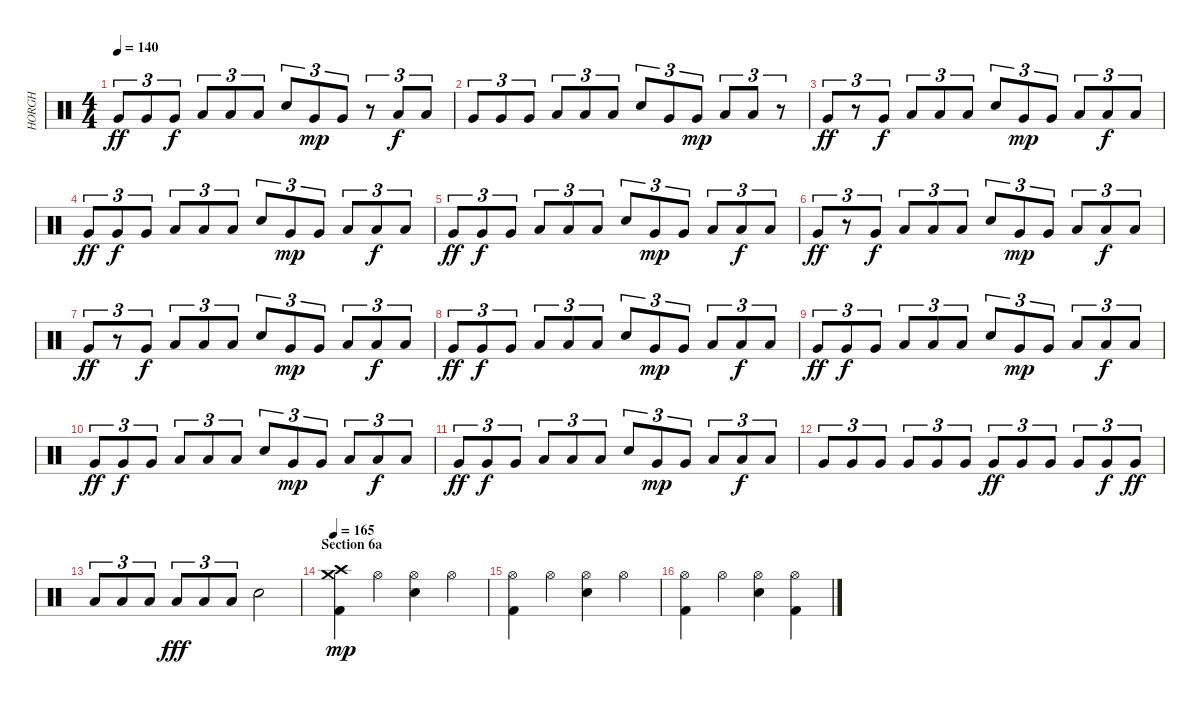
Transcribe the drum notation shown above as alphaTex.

\track ("HORGH" "HORGH") {instrument percussion}
\staff {score}
\articulation defaults
\ts (4 4)
\tempo 140
\clef neutral
\ks c "Very Low Tom (hit)".8{tu (3 2) dy ff} "Very Low Tom (hit)".8{tu (3 2)} "Very Low Tom (hit)".8{tu (3 2) dy f} "Low Floor Tom (hit)".8{tu (3 2)} "Low Floor Tom (hit)".8{tu (3 2)} "Low Floor Tom (hit)".8{tu (3 2)} "Electric Snare (hit)".8{tu (3 2)} "Very Low Tom (hit)".8{tu (3 2) dy mp} "Very Low Tom (hit)".8{tu (3 2)}
r.8{tu (3 2)} "Low Floor Tom (hit)".8{tu (3 2) dy f} "Low Floor Tom (hit)".8{tu (3 2)} |
"Very Low Tom (hit)".8{tu (3 2)} "Very Low Tom (hit)".8{tu (3 2)} "Very Low Tom (hit)".8{tu (3 2)} "Low Floor Tom (hit)".8{tu (3 2)} "Low Floor Tom (hit)".8{tu (3 2)} "Low Floor Tom (hit)".8{tu (3 2)} "Electric Snare (hit)".8{tu (3 2)} "Very Low Tom (hit)".8{tu (3 2)} "Very Low Tom (hit)".8{tu (3 2) dy mp} "Low Floor Tom (hit)".8{tu (3 2)} "Low Floor Tom (hit)".8{tu (3 2)} r.8{tu (3 2)} |
"Very Low Tom (hit)".8{tu (3 2) dy ff} r.8{tu (3 2)} "Very Low Tom (hit)".8{tu (3 2) dy f} "Low Floor Tom (hit)".8{tu (3 2)} "Low Floor Tom (hit)".8{tu (3 2)} "Low Floor Tom (hit)".8{tu (3 2)} "Electric Snare (hit)".8{tu (3 2)} "Very Low Tom (hit)".8{tu (3 2) dy mp} "Very Low Tom (hit)".8{tu (3 2)} "Low Floor Tom (hit)".8{tu (3 2)} "Low Floor Tom (hit)".8{tu (3 2) dy f} "Low Floor Tom (hit)".8{tu (3 2)} |
"Very Low Tom (hit)".8{tu (3 2) dy ff} "Very Low Tom (hit)".8{tu (3 2) dy f} "Very Low Tom (hit)".8{tu (3 2)} "Low Floor Tom (hit)".8{tu (3 2)} "Low Floor Tom (hit)".8{tu (3 2)} "Low Floor Tom (hit)".8{tu (3 2)} "Electric Snare (hit)".8{tu (3 2)} "Very Low Tom (hit)".8{tu (3 2) dy mp} "Very Low Tom (hit)".8{tu (3 2)} "Low Floor Tom (hit)".8{tu (3 2)} "Low Floor Tom (hit)".8{tu (3 2) dy f} "Low Floor Tom (hit)".8{tu (3 2)} |
"Very Low Tom (hit)".8{tu (3 2) dy ff} "Very Low Tom (hit)".8{tu (3 2) dy f} "Very Low Tom (hit)".8{tu (3 2)} "Low Floor Tom (hit)".8{tu (3 2)} "Low Floor Tom (hit)".8{tu (3 2)} "Low Floor Tom (hit)".8{tu (3 2)} "Electric Snare (hit)".8{tu (3 2)} "Very Low Tom (hit)".8{tu (3 2) dy mp} "Very Low Tom (hit)".8{tu (3 2)} "Low Floor Tom (hit)".8{tu (3 2)} "Low Floor Tom (hit)".8{tu (3 2) dy f} "Low Floor Tom (hit)".8{tu (3 2)} |
"Very Low Tom (hit)".8{tu (3 2) dy ff} r.8{tu (3 2)} "Very Low Tom (hit)".8{tu (3 2) dy f} "Low Floor Tom (hit)".8{tu (3 2)} "Low Floor Tom (hit)".8{tu (3 2)} "Low Floor Tom (hit)".8{tu (3 2)} "Electric Snare (hit)".8{tu (3 2)} "Very Low Tom (hit)".8{tu (3 2) dy mp} "Very Low Tom (hit)".8{tu (3 2)} "Low Floor Tom (hit)".8{tu (3 2)} "Low Floor Tom (hit)".8{tu (3 2) dy f} "Low Floor Tom (hit)".8{tu (3 2)} |
"Very Low Tom (hit)".8{tu (3 2) dy ff} r.8{tu (3 2)} "Very Low Tom (hit)".8{tu (3 2) dy f} "Low Floor Tom (hit)".8{tu (3 2)} "Low Floor Tom (hit)".8{tu (3 2)} "Low Floor Tom (hit)".8{tu (3 2)} "Electric Snare (hit)".8{tu (3 2)} "Very Low Tom (hit)".8{tu (3 2) dy mp} "Very Low Tom (hit)".8{tu (3 2)} "Low Floor Tom (hit)".8{tu (3 2)} "Low Floor Tom (hit)".8{tu (3 2) dy f} "Low Floor Tom (hit)".8{tu (3 2)} |
"Very Low Tom (hit)".8{tu (3 2) dy ff} "Very Low Tom (hit)".8{tu (3 2) dy f} "Very Low Tom (hit)".8{tu (3 2)} "Low Floor Tom (hit)".8{tu (3 2)} "Low Floor Tom (hit)".8{tu (3 2)} "Low Floor Tom (hit)".8{tu (3 2)} "Electric Snare (hit)".8{tu (3 2)} "Very Low Tom (hit)".8{tu (3 2) dy mp} "Very Low Tom (hit)".8{tu (3 2)} "Low Floor Tom (hit)".8{tu (3 2)} "Low Floor Tom (hit)".8{tu (3 2) dy f} "Low Floor Tom (hit)".8{tu (3 2)} |
"Very Low Tom (hit)".8{tu (3 2) dy ff} "Very Low Tom (hit)".8{tu (3 2) dy f} "Very Low Tom (hit)".8{tu (3 2)} "Low Floor Tom (hit)".8{tu (3 2)} "Low Floor Tom (hit)".8{tu (3 2)} "Low Floor Tom (hit)".8{tu (3 2)} "Electric Snare (hit)".8{tu (3 2)} "Very Low Tom (hit)".8{tu (3 2) dy mp} "Very Low Tom (hit)".8{tu (3 2)} "Low Floor Tom (hit)".8{tu (3 2)} "Low Floor Tom (hit)".8{tu (3 2) dy f} "Low Floor Tom (hit)".8{tu (3 2)} |
"Very Low Tom (hit)".8{tu (3 2) dy ff} "Very Low Tom (hit)".8{tu (3 2) dy f} "Very Low Tom (hit)".8{tu (3 2)} "Low Floor Tom (hit)".8{tu (3 2)} "Low Floor Tom (hit)".8{tu (3 2)} "Low Floor Tom (hit)".8{tu (3 2)} "Electric Snare (hit)".8{tu (3 2)} "Very Low Tom (hit)".8{tu (3 2) dy mp} "Very Low Tom (hit)".8{tu (3 2)} "Low Floor Tom (hit)".8{tu (3 2)} "Low Floor Tom (hit)".8{tu (3 2) dy f} "Low Floor Tom (hit)".8{tu (3 2)} |
"Very Low Tom (hit)".8{tu (3 2) dy ff} "Very Low Tom (hit)".8{tu (3 2) dy f} "Very Low Tom (hit)".8{tu (3 2)} "Low Floor Tom (hit)".8{tu (3 2)} "Low Floor Tom (hit)".8{tu (3 2)} "Low Floor Tom (hit)".8{tu (3 2)} "Electric Snare (hit)".8{tu (3 2)} "Very Low Tom (hit)".8{tu (3 2) dy mp} "Very Low Tom (hit)".8{tu (3 2)} "Low Floor Tom (hit)".8{tu (3 2)} "Low Floor Tom (hit)".8{tu (3 2) dy f} "Low Floor Tom (hit)".8{tu (3 2)} |
"Very Low Tom (hit)".8{tu (3 2)} "Very Low Tom (hit)".8{tu (3 2)} "Very Low Tom (hit)".8{tu (3 2)} "Very Low Tom (hit)".8{tu (3 2)} "Very Low Tom (hit)".8{tu (3 2)} "Very Low Tom (hit)".8{tu (3 2)} "Very Low Tom (hit)".8{tu (3 2) dy ff} "Very Low Tom (hit)".8{tu (3 2)} "Very Low Tom (hit)".8{tu (3 2)} "Very Low Tom (hit)".8{tu (3 2)} "Very Low Tom (hit)".8{tu (3 2) dy f} "Very Low Tom (hit)".8{tu (3 2) dy ff} |
"Low Floor Tom (hit)".8{tu (3 2)} "Low Floor Tom (hit)".8{tu (3 2)} "Low Floor Tom (hit)".8{tu (3 2)} "Low Floor Tom (hit)".8{tu (3 2) dy fff} "Low Floor Tom (hit)".8{tu (3 2)} "Low Floor Tom (hit)".8{tu (3 2)} "Electric Snare (hit)".2 |
\section ("" "Section 6a")
\tempo 165
("Crash medium (hit)" "Crash high (hit)" "Kick (hit) 2").4{dy mp volume 10} "Hi-Hat (open)".4 ("Hi-Hat (open)" "Electric Snare (hit)").4 "Hi-Hat (open)".4 |
("Hi-Hat (open)" "Kick (hit) 2").4 "Hi-Hat (open)".4 ("Hi-Hat (open)" "Electric Snare (hit)").4 "Hi-Hat (open)".4 |
("Hi-Hat (open)" "Kick (hit) 2").4 "Hi-Hat (open)".4 ("Hi-Hat (open)" "Electric Snare (hit)").4 ("Hi-Hat (open)" "Kick (hit) 2").4
